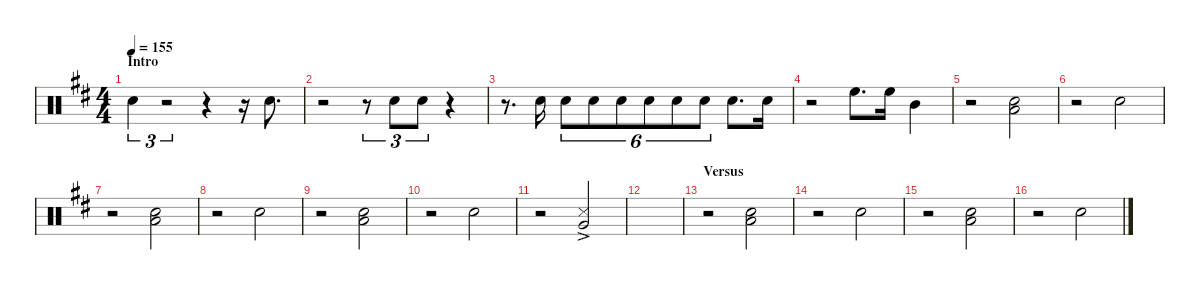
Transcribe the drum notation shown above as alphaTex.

\hideDynamics
\bracketExtendMode nobrackets
\singleTrackTrackNamePolicy hidden
\multiTrackTrackNamePolicy hidden
\otherSystemsTrackNameOrientation horizontal
\track ("Drums" "Drums") {instrument percussion}
\staff {score}
\articulation defaults
\ts (4 4)
\section ("" "Intro")
\tempo 155
\clef neutral
\ks d "Snare (hit) 2"{acc forcenatural}.4{tu (3 2) dy mf beam Down}
r.2{tu (3 2) beam Down} r.4{beam Down} r.16{beam Down} "Snare (hit) 2"{acc forcenatural}.8{d beam Down} |
r.2{beam Down} r.8{tu (3 2) beam Down} "Snare (hit) 2"{acc forcenatural}.8{tu (3 2) beam Down} "Snare (hit) 2"{acc forcenatural}.8{tu (3 2) beam Down} r.4{beam Down} |
r.8{d beam Down} "Snare (hit) 2"{acc forcenatural}.16{dy p beam Down} "Snare (hit) 2"{acc forcenatural}.8{tu (6 4) beam Down} "Snare (hit) 2"{acc forcenatural}.8{tu (6 4) beam Down} "Snare (hit) 2"{acc forcenatural}.8{tu (6 4) beam Down} "Snare (hit) 2"{acc forcenatural}.8{tu (6 4) dy mp beam Down} "Snare (hit) 2"{acc forcenatural}.8{tu (6 4) beam Down} "Snare (hit) 2"{acc forcenatural}.8{tu (6 4) beam Down} "Snare (hit) 2"{acc forcenatural}.8{d dy mf beam Down} "Snare (hit) 2"{acc forcenatural}.16{dy mp beam Down} |
r.2{beam Down} "High Floor Tom (hit)"{acc forcenatural}.8{d dy mf beam Down} "High Floor Tom (hit)"{acc forcenatural}.16{dy mp beam Down} "Mid Tom (hit)"{acc forcenatural}.4{dy p beam Down} |
r.2{beam Down} ("Snare (hit) 2"{acc forcenatural} "Low Tom (hit)"{acc forcenatural}).2{dy mf beam Down} |
r.2{beam Down} "Snare (hit) 2"{acc forcenatural}.2{beam Down} |
r.2{beam Down} ("Snare (hit) 2"{acc forcenatural} "Low Tom (hit)"{acc forcenatural}).2{beam Down} |
r.2{beam Down} "Snare (hit) 2"{acc forcenatural}.2{beam Down} |
r.2{beam Down} ("Snare (hit) 2"{acc forcenatural} "Low Tom (hit)"{acc forcenatural}).2{beam Down} |
r.2{beam Down} "Snare (hit) 2"{acc forcenatural}.2{beam Down} |
r.2{beam Down} ("Snare (side stick) 3"{acc forcenatural} "Very Low Tom (hit)"{ac acc forcenatural}).2{dy mp beam Up} |
|
\section ("" "Versus")
r.2{beam Down} ("Snare (hit) 2"{acc forcenatural} "Low Tom (hit)"{acc forcenatural}).2{dy mf beam Down} |
r.2{beam Down} "Snare (hit) 2"{acc forcenatural}.2{beam Down} |
r.2{beam Down} ("Snare (hit) 2"{acc forcenatural} "Low Tom (hit)"{acc forcenatural}).2{beam Down} |
r.2{beam Down} "Snare (hit) 2"{acc forcenatural}.2{beam Down}
